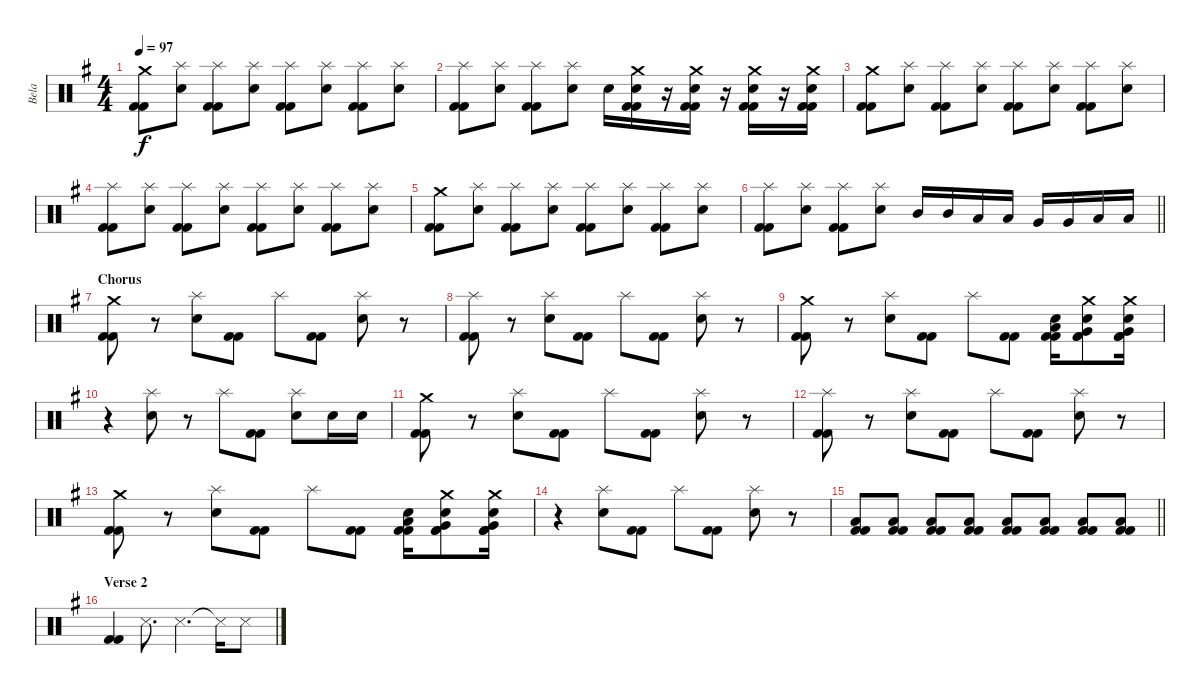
\track ("Bela" "Bela") {instrument percussion}
\staff {score}
\articulation defaults
\ts (4 4)
\tempo 97
\clef neutral
\ks g
("Crash medium (hit)" "Kick (hit) 2" "Kick (hit) 2").8{dy f} ("Splash (hit)" "Electric Snare (hit)").8 ("Splash (hit)" "Kick (hit) 2" "Kick (hit) 2").8 ("Splash (hit)" "Electric Snare (hit)").8 ("Splash (hit)" "Kick (hit) 2" "Kick (hit) 2").8 ("Splash (hit)" "Electric Snare (hit)").8 ("Splash (hit)" "Kick (hit) 2" "Kick (hit) 2").8 ("Splash (hit)" "Electric Snare (hit)").8 |
("Splash (hit)" "Kick (hit) 2" "Kick (hit) 2").8 ("Splash (hit)" "Electric Snare (hit)").8 ("Splash (hit)" "Kick (hit) 2" "Kick (hit) 2").8 ("Splash (hit)" "Electric Snare (hit)").8 "Electric Snare (hit)".16 ("Crash medium (hit)" "Electric Snare (hit)" "Kick (hit) 2" "Kick (hit) 2").16 r.16 ("Crash medium (hit)" "Electric Snare (hit)" "Kick (hit) 2" "Kick (hit) 2").16 r.16 ("Crash medium (hit)" "Electric Snare (hit)" "Kick (hit) 2" "Kick (hit) 2").16 r.16 ("Crash medium (hit)" "Electric Snare (hit)" "Kick (hit) 2" "Kick (hit) 2").16 |
("Crash medium (hit)" "Kick (hit) 2" "Kick (hit) 2").8 ("Splash (hit)" "Electric Snare (hit)").8 ("Splash (hit)" "Kick (hit) 2" "Kick (hit) 2").8 ("Splash (hit)" "Electric Snare (hit)").8 ("Splash (hit)" "Kick (hit) 2" "Kick (hit) 2").8 ("Splash (hit)" "Electric Snare (hit)").8 ("Splash (hit)" "Kick (hit) 2" "Kick (hit) 2").8 ("Splash (hit)" "Electric Snare (hit)").8 |
("Splash (hit)" "Kick (hit) 2" "Kick (hit) 2").8 ("Splash (hit)" "Electric Snare (hit)").8 ("Splash (hit)" "Kick (hit) 2" "Kick (hit) 2").8 ("Splash (hit)" "Electric Snare (hit)").8 ("Splash (hit)" "Kick (hit) 2" "Kick (hit) 2").8 ("Splash (hit)" "Electric Snare (hit)").8 ("Splash (hit)" "Kick (hit) 2" "Kick (hit) 2").8 ("Splash (hit)" "Electric Snare (hit)").8 |
("Crash medium (hit)" "Kick (hit) 2" "Kick (hit) 2").8 ("Splash (hit)" "Electric Snare (hit)").8 ("Splash (hit)" "Kick (hit) 2" "Kick (hit) 2").8 ("Splash (hit)" "Electric Snare (hit)").8 ("Splash (hit)" "Kick (hit) 2" "Kick (hit) 2").8 ("Splash (hit)" "Electric Snare (hit)").8 ("Splash (hit)" "Kick (hit) 2" "Kick (hit) 2").8 ("Splash (hit)" "Electric Snare (hit)").8 |
\barLineRight lightlight
("Splash (hit)" "Kick (hit) 2" "Kick (hit) 2").8 ("Splash (hit)" "Electric Snare (hit)").8 ("Splash (hit)" "Kick (hit) 2" "Kick (hit) 2").8 ("Splash (hit)" "Electric Snare (hit)").8 "Mid Tom (hit)".16 "Mid Tom (hit)".16 "Low Tom (hit)".16 "Low Tom (hit)".16 "Very Low Tom (hit)".16 "Very Low Tom (hit)".16 "Low Floor Tom (hit)".16 "Low Floor Tom (hit)".16 |
\section ("" "Chorus")
("Crash medium (hit)" "Kick (hit) 2" "Kick (hit) 2").8 r.8 ("Splash (hit)" "Snare (hit) 2").8 ("Kick (hit) 2" "Kick (hit) 2").8 "Splash (hit)".8 ("Kick (hit) 2" "Kick (hit) 2").8 ("Splash (hit)" "Snare (hit) 2").8 r.8 |
("Splash (hit)" "Kick (hit) 2" "Kick (hit) 2").8 r.8 ("Splash (hit)" "Snare (hit) 2").8 ("Kick (hit) 2" "Kick (hit) 2").8 "Splash (hit)".8 ("Kick (hit) 2" "Kick (hit) 2").8 ("Splash (hit)" "Snare (hit) 2").8 r.8 |
("Crash medium (hit)" "Kick (hit) 2" "Kick (hit) 2").8 r.8 ("Splash (hit)" "Snare (hit) 2").8 ("Kick (hit) 2" "Kick (hit) 2").8 "Splash (hit)".8 ("Kick (hit) 2" "Kick (hit) 2").8 ("Low Floor Tom (hit)" "Electric Snare (hit)" "Kick (hit) 2" "Kick (hit) 2").16 ("Crash medium (hit)" "Very Low Tom (hit)" "Electric Snare (hit)" "Kick (hit) 2" "Kick (hit) 2").8 ("Crash medium (hit)" "Very Low Tom (hit)" "Electric Snare (hit)" "Kick (hit) 2" "Kick (hit) 2").16 |
r.4 ("Splash (hit)" "Snare (hit) 2").8 r.8 "Splash (hit)".8 ("Kick (hit) 2" "Kick (hit) 2").8 ("Splash (hit)" "Snare (hit) 2").8 "Snare (hit) 2".16 "Snare (hit) 2".16 |
("Crash medium (hit)" "Kick (hit) 2" "Kick (hit) 2").8 r.8 ("Splash (hit)" "Snare (hit) 2").8 ("Kick (hit) 2" "Kick (hit) 2").8 "Splash (hit)".8 ("Kick (hit) 2" "Kick (hit) 2").8 ("Splash (hit)" "Snare (hit) 2").8 r.8 |
("Splash (hit)" "Kick (hit) 2" "Kick (hit) 2").8 r.8 ("Splash (hit)" "Snare (hit) 2").8 ("Kick (hit) 2" "Kick (hit) 2").8 "Splash (hit)".8 ("Kick (hit) 2" "Kick (hit) 2").8 ("Splash (hit)" "Snare (hit) 2").8 r.8 |
("Crash medium (hit)" "Kick (hit) 2" "Kick (hit) 2").8 r.8 ("Splash (hit)" "Snare (hit) 2").8 ("Kick (hit) 2" "Kick (hit) 2").8 "Splash (hit)".8 ("Kick (hit) 2" "Kick (hit) 2").8 ("Low Floor Tom (hit)" "Electric Snare (hit)" "Kick (hit) 2" "Kick (hit) 2").16 ("Crash medium (hit)" "Very Low Tom (hit)" "Electric Snare (hit)" "Kick (hit) 2" "Kick (hit) 2").8 ("Crash medium (hit)" "Very Low Tom (hit)" "Electric Snare (hit)" "Kick (hit) 2" "Kick (hit) 2").16 |
r.4 ("Splash (hit)" "Snare (hit) 2").8 ("Kick (hit) 2" "Kick (hit) 2").8 "Splash (hit)".8 ("Kick (hit) 2" "Kick (hit) 2").8 ("Splash (hit)" "Snare (hit) 2").8 r.8 |
\barLineRight lightlight
("Low Floor Tom (hit)" "Kick (hit) 2" "Kick (hit) 2").8 ("Low Floor Tom (hit)" "Kick (hit) 2" "Kick (hit) 2").8 ("Low Floor Tom (hit)" "Kick (hit) 2" "Kick (hit) 2").8 ("Low Floor Tom (hit)" "Kick (hit) 2" "Kick (hit) 2").8 ("Low Floor Tom (hit)" "Kick (hit) 2" "Kick (hit) 2").8 ("Low Floor Tom (hit)" "Kick (hit) 2" "Kick (hit) 2").8 ("Low Floor Tom (hit)" "Kick (hit) 2" "Kick (hit) 2").8 ("Low Floor Tom (hit)" "Kick (hit) 2" "Kick (hit) 2").8 |
\section ("" "Verse 2")
("Kick (hit) 2" "Kick (hit) 2").4 "Snare (side stick) 3".8{d} "Snare (side stick) 3".4{d} "Snare (side stick) 3"{t}.16 "Snare (side stick) 3".8
